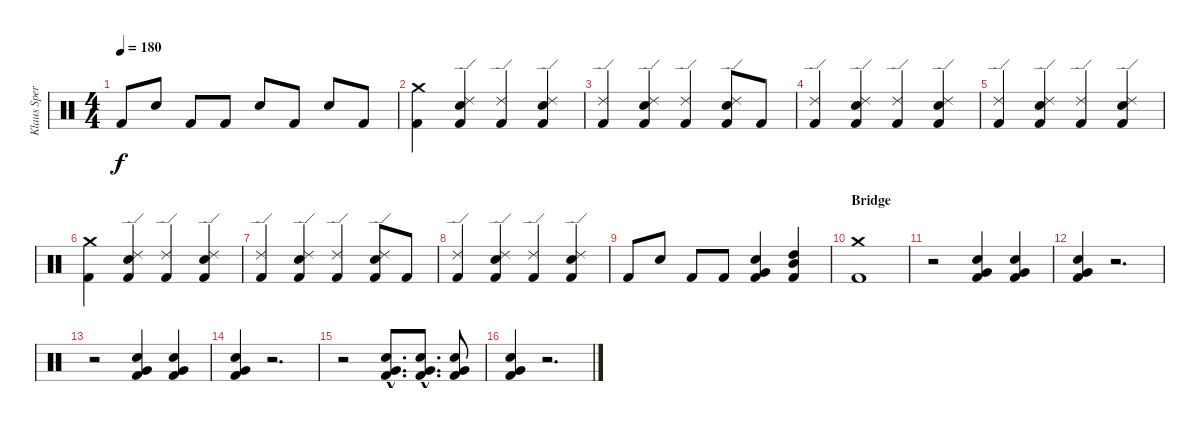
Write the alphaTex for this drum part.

\track ("Klaus Sperling Drums" "Klaus Sper") {instrument percussion}
\staff {score}
\articulation defaults
\ts (4 4)
\tempo 180
\clef neutral
\ks c "Kick (hit) 2".8{dy f} "Electric Snare (hit)".8 "Kick (hit) 2".8 "Kick (hit) 2".8 "Electric Snare (hit)".8 "Kick (hit) 2".8 "Electric Snare (hit)".8 "Kick (hit) 2".8
|
("Crash medium (hit)" "Kick (hit) 2").4 ("Ride (edge) 2" "Electric Snare (hit)" "Kick (hit) 2").4 ("Ride (edge) 2" "Kick (hit) 2").4 ("Ride (edge) 2" "Electric Snare (hit)" "Kick (hit) 2").4 |
("Ride (edge) 2" "Kick (hit) 2").4 ("Ride (edge) 2" "Electric Snare (hit)" "Kick (hit) 2").4 ("Ride (edge) 2" "Kick (hit) 2").4 ("Ride (edge) 2" "Electric Snare (hit)" "Kick (hit) 2").8 "Kick (hit) 2".8 |
("Ride (edge) 2" "Kick (hit) 2").4 ("Ride (edge) 2" "Electric Snare (hit)" "Kick (hit) 2").4 ("Ride (edge) 2" "Kick (hit) 2").4 ("Ride (edge) 2" "Electric Snare (hit)" "Kick (hit) 2").4 |
("Ride (edge) 2" "Kick (hit) 2").4 ("Ride (edge) 2" "Electric Snare (hit)" "Kick (hit) 2").4 ("Ride (edge) 2" "Kick (hit) 2").4 ("Ride (edge) 2" "Electric Snare (hit)" "Kick (hit) 2").4 |
("Crash medium (hit)" "Kick (hit) 2").4 ("Ride (edge) 2" "Electric Snare (hit)" "Kick (hit) 2").4 ("Ride (edge) 2" "Kick (hit) 2").4 ("Ride (edge) 2" "Electric Snare (hit)" "Kick (hit) 2").4 |
("Ride (edge) 2" "Kick (hit) 2").4 ("Ride (edge) 2" "Electric Snare (hit)" "Kick (hit) 2").4 ("Ride (edge) 2" "Kick (hit) 2").4 ("Ride (edge) 2" "Electric Snare (hit)" "Kick (hit) 2").8 "Kick (hit) 2".8 |
("Ride (edge) 2" "Kick (hit) 2").4 ("Ride (edge) 2" "Electric Snare (hit)" "Kick (hit) 2").4 ("Ride (edge) 2" "Kick (hit) 2").4 ("Ride (edge) 2" "Electric Snare (hit)" "Kick (hit) 2").4 |
"Kick (hit) 2".8 "Electric Snare (hit)".8 "Kick (hit) 2".8 "Kick (hit) 2".8 ("Very Low Tom (hit)" "Electric Snare (hit)" "Kick (hit) 2").4 ("Mid Tom (hit)" "High Tom (hit)" "Kick (hit) 2").4 |
\section ("" "Bridge")
("Crash medium (hit)" "Kick (hit) 2").1 |
r.2 ("Very Low Tom (hit)" "Electric Snare (hit)" "Kick (hit) 2").4 ("Very Low Tom (hit)" "Electric Snare (hit)" "Kick (hit) 2").4 |
("Very Low Tom (hit)" "Electric Snare (hit)" "Kick (hit) 2").4 r.2{d} |
r.2 ("Very Low Tom (hit)" "Electric Snare (hit)" "Kick (hit) 2").4 ("Very Low Tom (hit)" "Electric Snare (hit)" "Kick (hit) 2").4 |
("Very Low Tom (hit)" "Electric Snare (hit)" "Kick (hit) 2").4 r.2{d} |
r.2 ("Very Low Tom (hit)"{hac} "Electric Snare (hit)"{hac} "Kick (hit) 2"{hac}).8{d} ("Very Low Tom (hit)"{hac} "Electric Snare (hit)"{hac} "Kick (hit) 2"{hac}).8{d} ("Very Low Tom (hit)" "Electric Snare (hit)" "Kick (hit) 2").8 |
("Very Low Tom (hit)" "Electric Snare (hit)" "Kick (hit) 2").4 r.2{d}
